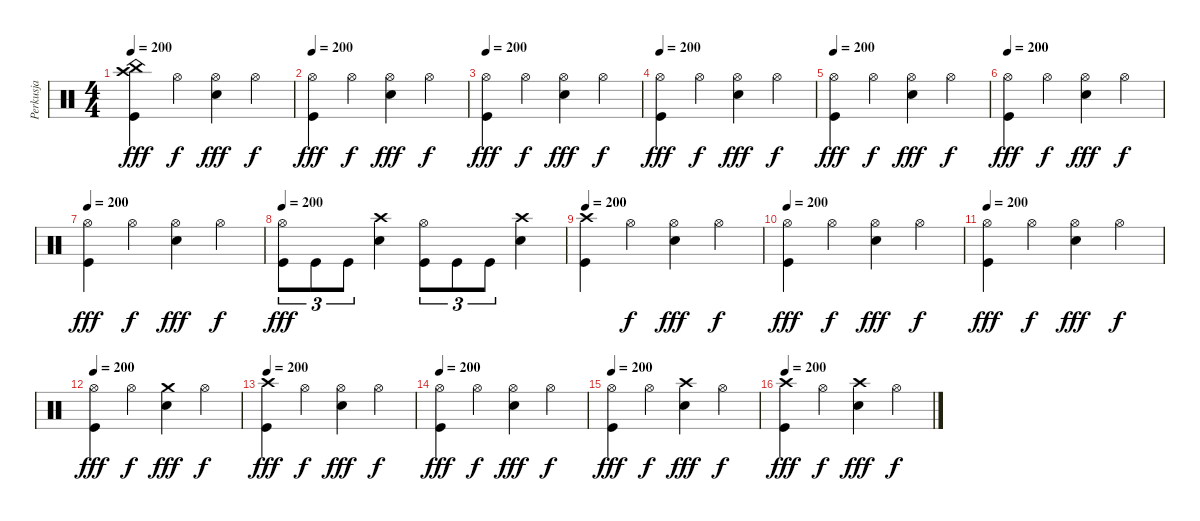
\track ("Perkusja" "Perkusja") {instrument percussion}
\staff {score}
\articulation defaults
\ts (4 4)
\tempo 200
\clef neutral
\ks c
("Crash high (hit)" "China (hit)" "Kick (hit)").4{dy fff} "Hi-Hat (open)".4{dy f} ("Hi-Hat (open)" "Snare (hit) 2").4{dy fff} "Hi-Hat (open)".4{dy f} |
\tempo 200
("Hi-Hat (open)" "Kick (hit)").4{dy fff} "Hi-Hat (open)".4{dy f} ("Hi-Hat (open)" "Snare (hit) 2").4{dy fff} "Hi-Hat (open)".4{dy f} |
\tempo 200
("Hi-Hat (open)" "Kick (hit)").4{dy fff} "Hi-Hat (open)".4{dy f} ("Hi-Hat (open)" "Snare (hit) 2").4{dy fff} "Hi-Hat (open)".4{dy f} |
\tempo 200
("Hi-Hat (open)" "Kick (hit)").4{dy fff} "Hi-Hat (open)".4{dy f} ("Hi-Hat (open)" "Snare (hit) 2").4{dy fff} "Hi-Hat (open)".4{dy f} |
\tempo 200
("Hi-Hat (open)" "Kick (hit)").4{dy fff} "Hi-Hat (open)".4{dy f} ("Hi-Hat (open)" "Snare (hit) 2").4{dy fff} "Hi-Hat (open)".4{dy f} |
\tempo 200
("Hi-Hat (open)" "Kick (hit)").4{dy fff} "Hi-Hat (open)".4{dy f} ("Hi-Hat (open)" "Snare (hit) 2").4{dy fff} "Hi-Hat (open)".4{dy f} |
\tempo 200
("Hi-Hat (open)" "Kick (hit)").4{dy fff} "Hi-Hat (open)".4{dy f} ("Hi-Hat (open)" "Snare (hit) 2").4{dy fff} "Hi-Hat (open)".4{dy f} |
\tempo 200
("Hi-Hat (open)" "Kick (hit)").8{tu (3 2) dy fff} "Kick (hit)".8{tu (3 2)} "Kick (hit)".8{tu (3 2)} ("Crash high (hit)" "Snare (hit) 2").4 ("Hi-Hat (open)" "Kick (hit)").8{tu (3 2)} "Kick (hit)".8{tu (3 2)} "Kick (hit)".8{tu (3 2)} ("Crash high (hit)" "Snare (hit) 2").4 |
\tempo 200
("Crash high (hit)" "Kick (hit)").4 "Hi-Hat (open)".4{dy f} ("Hi-Hat (open)" "Snare (hit) 2").4{dy fff} "Hi-Hat (open)".4{dy f} |
\tempo 200
("Hi-Hat (open)" "Kick (hit)").4{dy fff} "Hi-Hat (open)".4{dy f} ("Hi-Hat (open)" "Snare (hit) 2").4{dy fff} "Hi-Hat (open)".4{dy f} |
\tempo 200
("Hi-Hat (open)" "Kick (hit)").4{dy fff} "Hi-Hat (open)".4{dy f} ("Hi-Hat (open)" "Snare (hit) 2").4{dy fff} "Hi-Hat (open)".4{dy f} |
\tempo 200
("Hi-Hat (open)" "Kick (hit)").4{dy fff} "Hi-Hat (open)".4{dy f} ("Crash medium (hit)" "Snare (hit) 2").4{dy fff} "Hi-Hat (open)".4{dy f} |
\tempo 200
("Crash high (hit)" "Kick (hit)").4{dy fff} "Hi-Hat (open)".4{dy f} ("Hi-Hat (open)" "Snare (hit) 2").4{dy fff} "Hi-Hat (open)".4{dy f} |
\tempo 200
("Hi-Hat (open)" "Kick (hit)").4{dy fff} "Hi-Hat (open)".4{dy f} ("Hi-Hat (open)" "Snare (hit) 2").4{dy fff} "Hi-Hat (open)".4{dy f} |
\tempo 200
("Hi-Hat (open)" "Kick (hit)").4{dy fff} "Hi-Hat (open)".4{dy f} ("Crash high (hit)" "Snare (hit) 2").4{dy fff} "Hi-Hat (open)".4{dy f} |
\tempo 200
("Crash high (hit)" "Kick (hit)").4{dy fff} "Hi-Hat (open)".4{dy f} ("Crash high (hit)" "Snare (hit) 2").4{dy fff} "Hi-Hat (open)".4{dy f}
